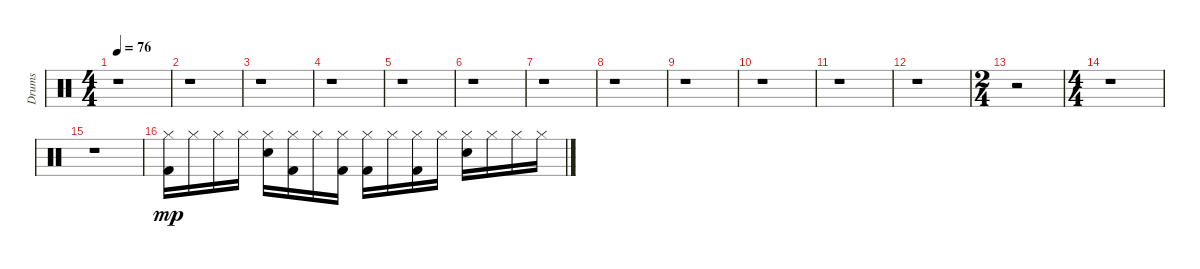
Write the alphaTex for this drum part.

\track ("Drums" "Drums") {instrument percussion}
\staff {score}
\articulation defaults
\ts (4 4)
\tempo 76
\clef neutral
\ks c
r.1{dy mp} |
r.1 |
r.1 |
r.1 |
r.1 |
r.1 |
r.1 |
r.1 |
r.1 |
r.1 |
r.1 |
r.1 |
\ts (2 4)
r.2 |
\ts (4 4)
r.1 |
r.1 |
("Hi-Hat (closed)" "Kick (hit) 2").16 "Hi-Hat (closed)".16 "Hi-Hat (closed)".16 "Hi-Hat (closed)".16 ("Hi-Hat (closed)" "Snare (hit) 2").16 ("Hi-Hat (closed)" "Kick (hit) 2").16 "Hi-Hat (closed)".16 ("Hi-Hat (closed)" "Kick (hit) 2").16 ("Hi-Hat (closed)" "Kick (hit) 2").16 "Hi-Hat (closed)".16 ("Hi-Hat (closed)" "Kick (hit) 2").16 "Hi-Hat (closed)".16 ("Snare (hit) 2" "Hi-Hat (closed)").16 "Hi-Hat (closed)".16 "Hi-Hat (closed)".16 "Hi-Hat (closed)".16
